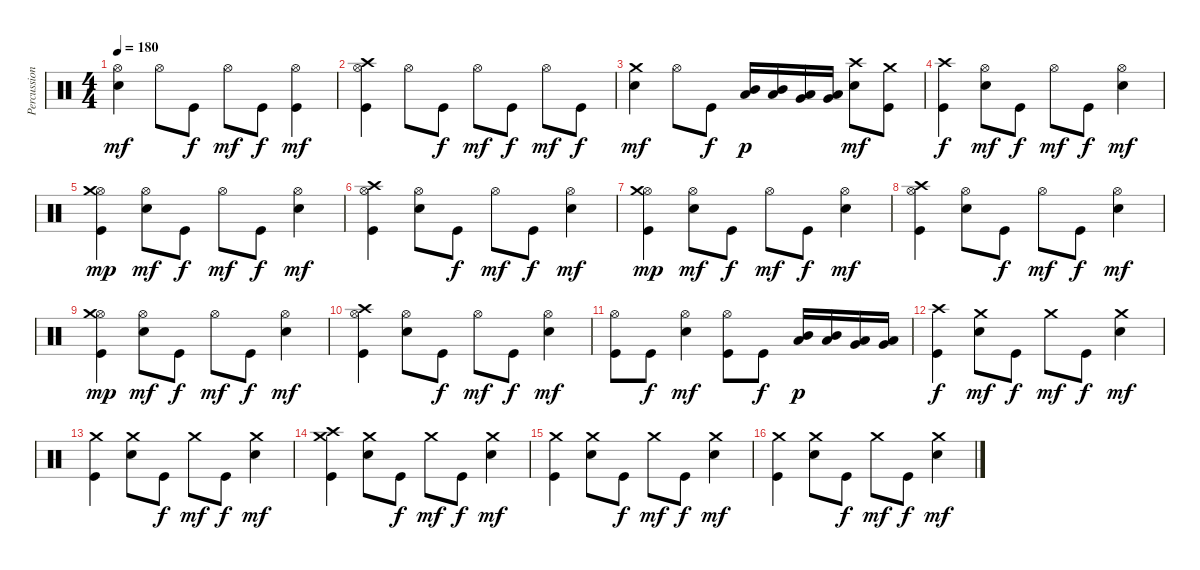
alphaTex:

\track ("Percussions" "Percussion") {instrument percussion}
\staff {score}
\articulation defaults
\ts (4 4)
\tempo 180
\clef neutral
\ks c
("Electric Snare (hit)" "Hi-Hat (open)").4{dy mf} "Hi-Hat (open)".8 "Kick (hit)".8{dy f} "Hi-Hat (open)".8{dy mf} "Kick (hit)".8{dy f} ("Kick (hit)" "Hi-Hat (open)").4{dy mf} |
("Kick (hit)" "Hi-Hat (open)" "Crash high (hit)").4 "Hi-Hat (open)".8 "Kick (hit)".8{dy f} "Hi-Hat (open)".8{dy mf} "Kick (hit)".8{dy f} "Hi-Hat (open)".8{dy mf} "Kick (hit)".8{dy f} |
("Electric Snare (hit)" "Crash medium (hit)").4{dy mf} "Hi-Hat (open)".8 "Kick (hit)".8{dy f} ("Low Tom (hit)" "Mid Tom (hit)").16{dy p} ("Low Tom (hit)" "Mid Tom (hit)").16 ("Very Low Tom (hit)" "Low Tom (hit)").16 ("Very Low Tom (hit)" "Low Tom (hit)").16 ("Electric Snare (hit)" "Crash high (hit)").8{dy mf} ("Kick (hit)" "Crash medium (hit)").8 |
("Kick (hit)" "Crash high (hit)").4{dy f} ("Electric Snare (hit)" "Hi-Hat (open)").8{dy mf} "Kick (hit)".8{dy f} "Hi-Hat (open)".8{dy mf} "Kick (hit)".8{dy f} ("Electric Snare (hit)" "Hi-Hat (open)").4{dy mf} |
("Kick (hit)" "Hi-Hat (open)" "Crash medium (hit)").4{dy mp} ("Electric Snare (hit)" "Hi-Hat (open)").8{dy mf} "Kick (hit)".8{dy f} "Hi-Hat (open)".8{dy mf} "Kick (hit)".8{dy f} ("Electric Snare (hit)" "Hi-Hat (open)").4{dy mf} |
("Kick (hit)" "Hi-Hat (open)" "Crash high (hit)").4 ("Electric Snare (hit)" "Hi-Hat (open)").8 "Kick (hit)".8{dy f} "Hi-Hat (open)".8{dy mf} "Kick (hit)".8{dy f} ("Electric Snare (hit)" "Hi-Hat (open)").4{dy mf} |
("Kick (hit)" "Hi-Hat (open)" "Crash medium (hit)").4{dy mp} ("Electric Snare (hit)" "Hi-Hat (open)").8{dy mf} "Kick (hit)".8{dy f} "Hi-Hat (open)".8{dy mf} "Kick (hit)".8{dy f} ("Electric Snare (hit)" "Hi-Hat (open)").4{dy mf} |
("Kick (hit)" "Hi-Hat (open)" "Crash high (hit)").4 ("Electric Snare (hit)" "Hi-Hat (open)").8 "Kick (hit)".8{dy f} "Hi-Hat (open)".8{dy mf} "Kick (hit)".8{dy f} ("Electric Snare (hit)" "Hi-Hat (open)").4{dy mf} |
("Kick (hit)" "Hi-Hat (open)" "Crash medium (hit)").4{dy mp} ("Electric Snare (hit)" "Hi-Hat (open)").8{dy mf} "Kick (hit)".8{dy f} "Hi-Hat (open)".8{dy mf} "Kick (hit)".8{dy f} ("Electric Snare (hit)" "Hi-Hat (open)").4{dy mf} |
("Kick (hit)" "Hi-Hat (open)" "Crash high (hit)").4 ("Electric Snare (hit)" "Hi-Hat (open)").8 "Kick (hit)".8{dy f} "Hi-Hat (open)".8{dy mf} "Kick (hit)".8{dy f} ("Electric Snare (hit)" "Hi-Hat (open)").4{dy mf} |
("Kick (hit)" "Hi-Hat (open)").8 "Kick (hit)".8{dy f} ("Electric Snare (hit)" "Hi-Hat (open)").4{dy mf} ("Kick (hit)" "Hi-Hat (open)").8 "Kick (hit)".8{dy f} ("Low Tom (hit)" "Mid Tom (hit)").16{dy p} ("Low Tom (hit)" "Mid Tom (hit)").16 ("Very Low Tom (hit)" "Low Tom (hit)").16 ("Very Low Tom (hit)" "Low Tom (hit)").16 |
("Kick (hit)" "Crash high (hit)").4{dy f} ("Electric Snare (hit)" "Crash medium (hit)").8{dy mf} "Kick (hit)".8{dy f} "Crash medium (hit)".8{dy mf} "Kick (hit)".8{dy f} ("Electric Snare (hit)" "Crash medium (hit)").4{dy mf} |
("Kick (hit)" "Crash medium (hit)").4 ("Electric Snare (hit)" "Crash medium (hit)").8 "Kick (hit)".8{dy f} "Crash medium (hit)".8{dy mf} "Kick (hit)".8{dy f} ("Electric Snare (hit)" "Crash medium (hit)").4{dy mf} |
("Kick (hit)" "Crash medium (hit)" "Crash high (hit)").4 ("Electric Snare (hit)" "Crash medium (hit)").8 "Kick (hit)".8{dy f} "Crash medium (hit)".8{dy mf} "Kick (hit)".8{dy f} ("Electric Snare (hit)" "Crash medium (hit)").4{dy mf} |
("Kick (hit)" "Crash medium (hit)").4 ("Electric Snare (hit)" "Crash medium (hit)").8 "Kick (hit)".8{dy f} "Crash medium (hit)".8{dy mf} "Kick (hit)".8{dy f} ("Electric Snare (hit)" "Crash medium (hit)").4{dy mf} |
("Kick (hit)" "Crash medium (hit)").4 ("Electric Snare (hit)" "Crash medium (hit)").8 "Kick (hit)".8{dy f} "Crash medium (hit)".8{dy mf} "Kick (hit)".8{dy f} ("Electric Snare (hit)" "Crash medium (hit)").4{dy mf}
